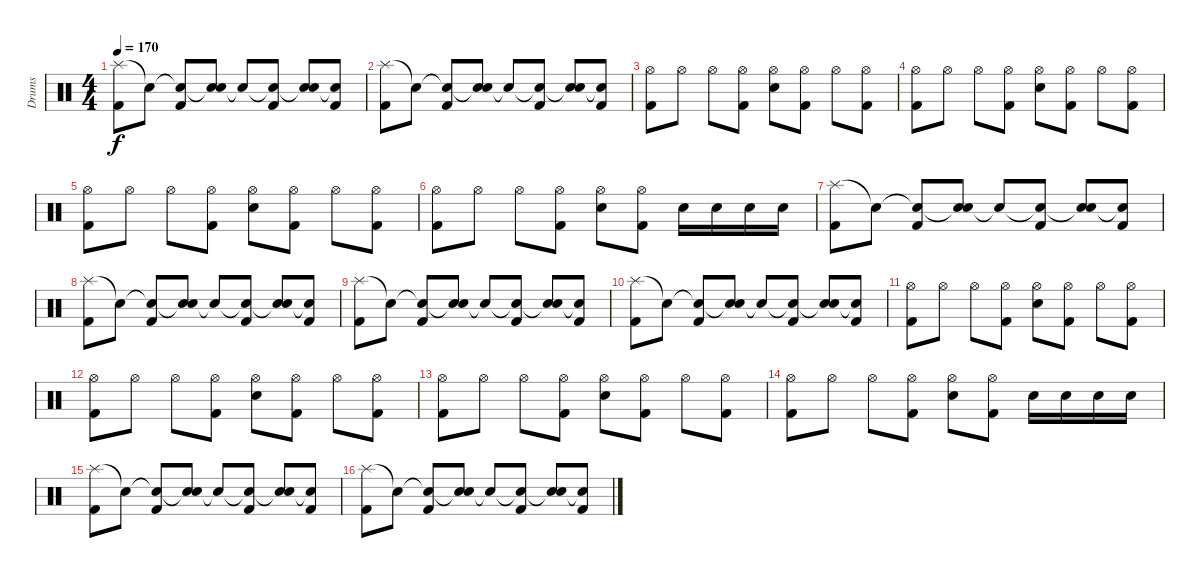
\track ("Drums" "Drums") {instrument percussion}
\staff {score}
\articulation defaults
\ts (4 4)
\tempo 170
\clef neutral
\ks c
("Splash (hit)" "Kick (hit) 2").8{dy f} "Snare (hit)"{t}.8 ("Snare (hit)"{t} "Kick (hit) 2").8 ("Snare (hit)"{t} "Electric Snare (hit)").8 "Snare (hit)"{t}.8 ("Snare (hit)"{t} "Kick (hit) 2").8 ("Snare (hit)"{t} "Electric Snare (hit)").8 ("Snare (hit)"{t} "Kick (hit) 2").8 |
("Splash (hit)" "Kick (hit) 2").8 "Snare (hit)"{t}.8 ("Snare (hit)"{t} "Kick (hit) 2").8 ("Snare (hit)"{t} "Electric Snare (hit)").8 "Snare (hit)"{t}.8 ("Snare (hit)"{t} "Kick (hit) 2").8 ("Snare (hit)"{t} "Electric Snare (hit)").8 ("Snare (hit)"{t} "Kick (hit) 2").8 |
("Hi-Hat (open)" "Kick (hit) 2").8 "Hi-Hat (open)".8 "Hi-Hat (open)".8 ("Hi-Hat (open)" "Kick (hit) 2").8 ("Hi-Hat (open)" "Electric Snare (hit)").8 ("Hi-Hat (open)" "Kick (hit) 2").8 "Hi-Hat (open)".8 ("Hi-Hat (open)" "Kick (hit) 2").8 |
("Hi-Hat (open)" "Kick (hit) 2").8 "Hi-Hat (open)".8 "Hi-Hat (open)".8 ("Hi-Hat (open)" "Kick (hit) 2").8 ("Hi-Hat (open)" "Electric Snare (hit)").8 ("Hi-Hat (open)" "Kick (hit) 2").8 "Hi-Hat (open)".8 ("Hi-Hat (open)" "Kick (hit) 2").8 |
("Hi-Hat (open)" "Kick (hit) 2").8 "Hi-Hat (open)".8 "Hi-Hat (open)".8 ("Hi-Hat (open)" "Kick (hit) 2").8 ("Hi-Hat (open)" "Electric Snare (hit)").8 ("Hi-Hat (open)" "Kick (hit) 2").8 "Hi-Hat (open)".8 ("Hi-Hat (open)" "Kick (hit) 2").8 |
("Hi-Hat (open)" "Kick (hit) 2").8 "Hi-Hat (open)".8 "Hi-Hat (open)".8 ("Hi-Hat (open)" "Kick (hit) 2").8 ("Hi-Hat (open)" "Electric Snare (hit)").8 ("Hi-Hat (open)" "Kick (hit) 2").8 "Electric Snare (hit)".16 "Electric Snare (hit)".16 "Electric Snare (hit)".16 "Electric Snare (hit)".16 |
("Splash (hit)" "Kick (hit) 2").8 "Snare (hit)"{t}.8 ("Snare (hit)"{t} "Kick (hit) 2").8 ("Snare (hit)"{t} "Electric Snare (hit)").8 "Snare (hit)"{t}.8 ("Snare (hit)"{t} "Kick (hit) 2").8 ("Snare (hit)"{t} "Electric Snare (hit)").8 ("Snare (hit)"{t} "Kick (hit) 2").8 |
("Splash (hit)" "Kick (hit) 2").8 "Snare (hit)"{t}.8 ("Snare (hit)"{t} "Kick (hit) 2").8 ("Snare (hit)"{t} "Electric Snare (hit)").8 "Snare (hit)"{t}.8 ("Snare (hit)"{t} "Kick (hit) 2").8 ("Snare (hit)"{t} "Electric Snare (hit)").8 ("Snare (hit)"{t} "Kick (hit) 2").8 |
("Splash (hit)" "Kick (hit) 2").8 "Snare (hit)"{t}.8 ("Snare (hit)"{t} "Kick (hit) 2").8 ("Snare (hit)"{t} "Electric Snare (hit)").8 "Snare (hit)"{t}.8 ("Snare (hit)"{t} "Kick (hit) 2").8 ("Snare (hit)"{t} "Electric Snare (hit)").8 ("Snare (hit)"{t} "Kick (hit) 2").8 |
("Splash (hit)" "Kick (hit) 2").8 "Snare (hit)"{t}.8 ("Snare (hit)"{t} "Kick (hit) 2").8 ("Snare (hit)"{t} "Electric Snare (hit)").8 "Snare (hit)"{t}.8 ("Snare (hit)"{t} "Kick (hit) 2").8 ("Snare (hit)"{t} "Electric Snare (hit)").8 ("Snare (hit)"{t} "Kick (hit) 2").8 |
("Hi-Hat (open)" "Kick (hit) 2").8 "Hi-Hat (open)".8 "Hi-Hat (open)".8 ("Hi-Hat (open)" "Kick (hit) 2").8 ("Hi-Hat (open)" "Electric Snare (hit)").8 ("Hi-Hat (open)" "Kick (hit) 2").8 "Hi-Hat (open)".8 ("Hi-Hat (open)" "Kick (hit) 2").8 |
("Hi-Hat (open)" "Kick (hit) 2").8 "Hi-Hat (open)".8 "Hi-Hat (open)".8 ("Hi-Hat (open)" "Kick (hit) 2").8 ("Hi-Hat (open)" "Electric Snare (hit)").8 ("Hi-Hat (open)" "Kick (hit) 2").8 "Hi-Hat (open)".8 ("Hi-Hat (open)" "Kick (hit) 2").8 |
("Hi-Hat (open)" "Kick (hit) 2").8 "Hi-Hat (open)".8 "Hi-Hat (open)".8 ("Hi-Hat (open)" "Kick (hit) 2").8 ("Hi-Hat (open)" "Electric Snare (hit)").8 ("Hi-Hat (open)" "Kick (hit) 2").8 "Hi-Hat (open)".8 ("Hi-Hat (open)" "Kick (hit) 2").8 |
("Hi-Hat (open)" "Kick (hit) 2").8 "Hi-Hat (open)".8 "Hi-Hat (open)".8 ("Hi-Hat (open)" "Kick (hit) 2").8 ("Hi-Hat (open)" "Electric Snare (hit)").8 ("Hi-Hat (open)" "Kick (hit) 2").8 "Electric Snare (hit)".16 "Electric Snare (hit)".16 "Electric Snare (hit)".16 "Electric Snare (hit)".16 |
("Splash (hit)" "Kick (hit) 2").8 "Snare (hit)"{t}.8 ("Snare (hit)"{t} "Kick (hit) 2").8 ("Snare (hit)"{t} "Electric Snare (hit)").8 "Snare (hit)"{t}.8 ("Snare (hit)"{t} "Kick (hit) 2").8 ("Snare (hit)"{t} "Electric Snare (hit)").8 ("Snare (hit)"{t} "Kick (hit) 2").8 |
("Splash (hit)" "Kick (hit) 2").8 "Snare (hit)"{t}.8 ("Snare (hit)"{t} "Kick (hit) 2").8 ("Snare (hit)"{t} "Electric Snare (hit)").8 "Snare (hit)"{t}.8 ("Snare (hit)"{t} "Kick (hit) 2").8 ("Snare (hit)"{t} "Electric Snare (hit)").8 ("Snare (hit)"{t} "Kick (hit) 2").8
